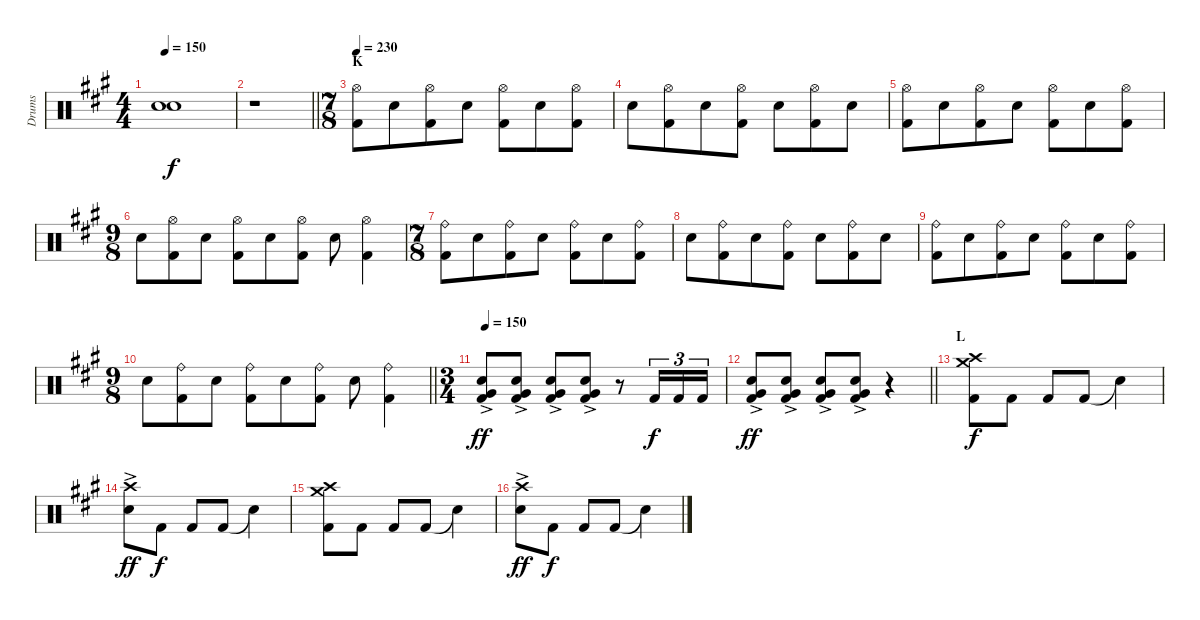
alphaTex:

\track ("Drums" "Drums") {instrument percussion}
\staff {score}
\articulation defaults
\ts (4 4)
\section ("" "")
\tempo 150
\clef neutral
\ks f#minor
("Electric Snare (hit)" "Electric Snare (hit)").1{bu 240 dy f} |
\barLineRight lightlight
r.1 |
\ts (7 8)
\section ("" "K")
\tempo 230
("Hi-Hat (open)" "Kick (hit) 2").8 "Electric Snare (hit)".8 ("Hi-Hat (open)" "Kick (hit) 2").8 "Electric Snare (hit)".8 ("Hi-Hat (open)" "Kick (hit) 2").8 "Electric Snare (hit)".8 ("Hi-Hat (open)" "Kick (hit) 2").8 |
"Electric Snare (hit)".8 ("Hi-Hat (open)" "Kick (hit) 2").8 "Electric Snare (hit)".8 ("Hi-Hat (open)" "Kick (hit) 2").8 "Electric Snare (hit)".8 ("Hi-Hat (open)" "Kick (hit) 2").8 "Electric Snare (hit)".8 |
("Hi-Hat (open)" "Kick (hit) 2").8 "Electric Snare (hit)".8 ("Hi-Hat (open)" "Kick (hit) 2").8 "Electric Snare (hit)".8 ("Hi-Hat (open)" "Kick (hit) 2").8 "Electric Snare (hit)".8 ("Hi-Hat (open)" "Kick (hit) 2").8 |
\ts (9 8)
"Electric Snare (hit)".8 ("Hi-Hat (open)" "Kick (hit) 2").8 "Electric Snare (hit)".8 ("Hi-Hat (open)" "Kick (hit) 2").8 "Electric Snare (hit)".8 ("Hi-Hat (open)" "Kick (hit) 2").8 "Electric Snare (hit)".8 ("Hi-Hat (open)" "Kick (hit) 2").4 |
\ts (7 8)
("Ride (bell)" "Kick (hit) 2").8 "Electric Snare (hit)".8 ("Ride (bell)" "Kick (hit) 2").8 "Electric Snare (hit)".8 ("Ride (bell)" "Kick (hit) 2").8 "Electric Snare (hit)".8 ("Ride (bell)" "Kick (hit) 2").8 |
"Electric Snare (hit)".8 ("Ride (bell)" "Kick (hit) 2").8 "Electric Snare (hit)".8 ("Ride (bell)" "Kick (hit) 2").8 "Electric Snare (hit)".8 ("Ride (bell)" "Kick (hit) 2").8 "Electric Snare (hit)".8 |
("Ride (bell)" "Kick (hit) 2").8 "Electric Snare (hit)".8 ("Ride (bell)" "Kick (hit) 2").8 "Electric Snare (hit)".8 ("Ride (bell)" "Kick (hit) 2").8 "Electric Snare (hit)".8 ("Ride (bell)" "Kick (hit) 2").8 |
\ts (9 8)
\barLineRight lightlight "Electric Snare (hit)".8
("Ride (bell)" "Kick (hit) 2").8 "Electric Snare (hit)".8 ("Ride (bell)" "Kick (hit) 2").8 "Electric Snare (hit)".8 ("Ride (bell)" "Kick (hit) 2").8 "Electric Snare (hit)".8 ("Ride (bell)" "Kick (hit) 2").4 |
\ts (3 4)
\section ("" "")
\tempo 150
("Very Low Tom (hit)"{ac} "Electric Snare (hit)" "Kick (hit) 2").8{dy ff} ("Very Low Tom (hit)"{ac} "Electric Snare (hit)" "Kick (hit) 2").8 ("Very Low Tom (hit)"{ac} "Electric Snare (hit)" "Kick (hit) 2").8 ("Very Low Tom (hit)"{ac} "Electric Snare (hit)" "Kick (hit) 2").8 r.8 "Kick (hit) 2".16{tu (3 2) dy f} "Kick (hit) 2".16{tu (3 2)} "Kick (hit) 2".16{tu (3 2)} |
\barLineRight lightlight
("Very Low Tom (hit)"{ac} "Electric Snare (hit)" "Kick (hit) 2").8{dy ff} ("Very Low Tom (hit)"{ac} "Electric Snare (hit)" "Kick (hit) 2").8 ("Very Low Tom (hit)"{ac} "Electric Snare (hit)" "Kick (hit) 2").8 ("Very Low Tom (hit)"{ac} "Electric Snare (hit)" "Kick (hit) 2").8 r.4 |
\section ("" "L")
("Crash medium (hit)" "Crash high (hit)" "Kick (hit) 2").8{dy f} "Kick (hit) 2".8 "Kick (hit) 2".8 "Kick (hit) 2".8 "Snare (hit)"{t}.4 |
("Crash high (hit)"{ac} "Electric Snare (hit)").8{dy ff} "Kick (hit) 2".8{dy f} "Kick (hit) 2".8 "Kick (hit) 2".8 "Snare (hit)"{t}.4 |
("Crash medium (hit)" "Crash high (hit)" "Kick (hit) 2").8 "Kick (hit) 2".8 "Kick (hit) 2".8 "Kick (hit) 2".8 "Snare (hit)"{t}.4 |
("Crash high (hit)"{ac} "Electric Snare (hit)").8{dy ff} "Kick (hit) 2".8{dy f} "Kick (hit) 2".8 "Kick (hit) 2".8 "Snare (hit)"{t}.4
